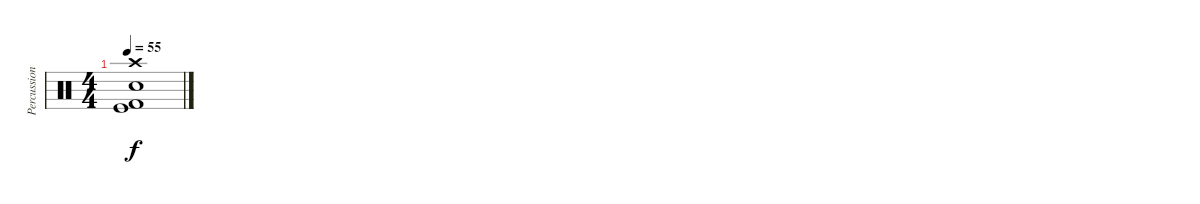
\track ("Percussions" "Percussion") {instrument percussion}
\staff {score}
\articulation defaults
\ts (4 4)
\tempo 55
\clef neutral
\ks c
("Kick (hit)" "Kick (hit) 2" "Electric Snare (hit)" "Crash high (hit)").1{dy f}
